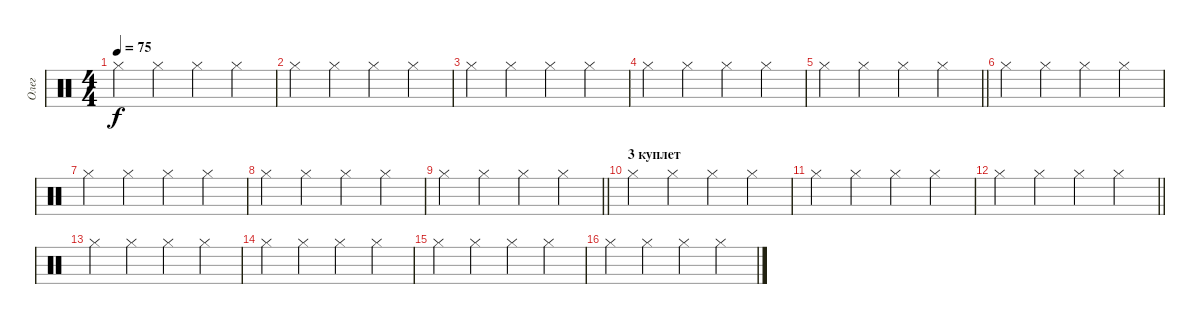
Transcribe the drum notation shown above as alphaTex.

\track ("Олег" "Олег") {instrument percussion}
\staff {score}
\articulation defaults
\ts (4 4)
\tempo 75
\clef neutral
\ks c "Hi-Hat (closed)".4{dy f} "Hi-Hat (closed)".4 "Hi-Hat (closed)".4 "Hi-Hat (closed)".4
|
"Hi-Hat (closed)".4 "Hi-Hat (closed)".4 "Hi-Hat (closed)".4 "Hi-Hat (closed)".4 |
"Hi-Hat (closed)".4 "Hi-Hat (closed)".4 "Hi-Hat (closed)".4 "Hi-Hat (closed)".4 |
"Hi-Hat (closed)".4 "Hi-Hat (closed)".4 "Hi-Hat (closed)".4 "Hi-Hat (closed)".4 |
\barLineRight lightlight "Hi-Hat (closed)".4 "Hi-Hat (closed)".4 "Hi-Hat (closed)".4 "Hi-Hat (closed)".4
|
"Hi-Hat (closed)".4 "Hi-Hat (closed)".4 "Hi-Hat (closed)".4 "Hi-Hat (closed)".4 |
"Hi-Hat (closed)".4 "Hi-Hat (closed)".4 "Hi-Hat (closed)".4 "Hi-Hat (closed)".4 |
"Hi-Hat (closed)".4 "Hi-Hat (closed)".4 "Hi-Hat (closed)".4 "Hi-Hat (closed)".4 |
\barLineRight lightlight "Hi-Hat (closed)".4 "Hi-Hat (closed)".4 "Hi-Hat (closed)".4 "Hi-Hat (closed)".4
|
\section ("" "3 куплет")
"Hi-Hat (closed)".4 "Hi-Hat (closed)".4 "Hi-Hat (closed)".4 "Hi-Hat (closed)".4 |
"Hi-Hat (closed)".4 "Hi-Hat (closed)".4 "Hi-Hat (closed)".4 "Hi-Hat (closed)".4 |
\barLineRight lightlight "Hi-Hat (closed)".4 "Hi-Hat (closed)".4 "Hi-Hat (closed)".4 "Hi-Hat (closed)".4
|
"Hi-Hat (closed)".4 "Hi-Hat (closed)".4 "Hi-Hat (closed)".4 "Hi-Hat (closed)".4 |
"Hi-Hat (closed)".4 "Hi-Hat (closed)".4 "Hi-Hat (closed)".4 "Hi-Hat (closed)".4 |
"Hi-Hat (closed)".4 "Hi-Hat (closed)".4 "Hi-Hat (closed)".4 "Hi-Hat (closed)".4 |
"Hi-Hat (closed)".4 "Hi-Hat (closed)".4 "Hi-Hat (closed)".4 "Hi-Hat (closed)".4
